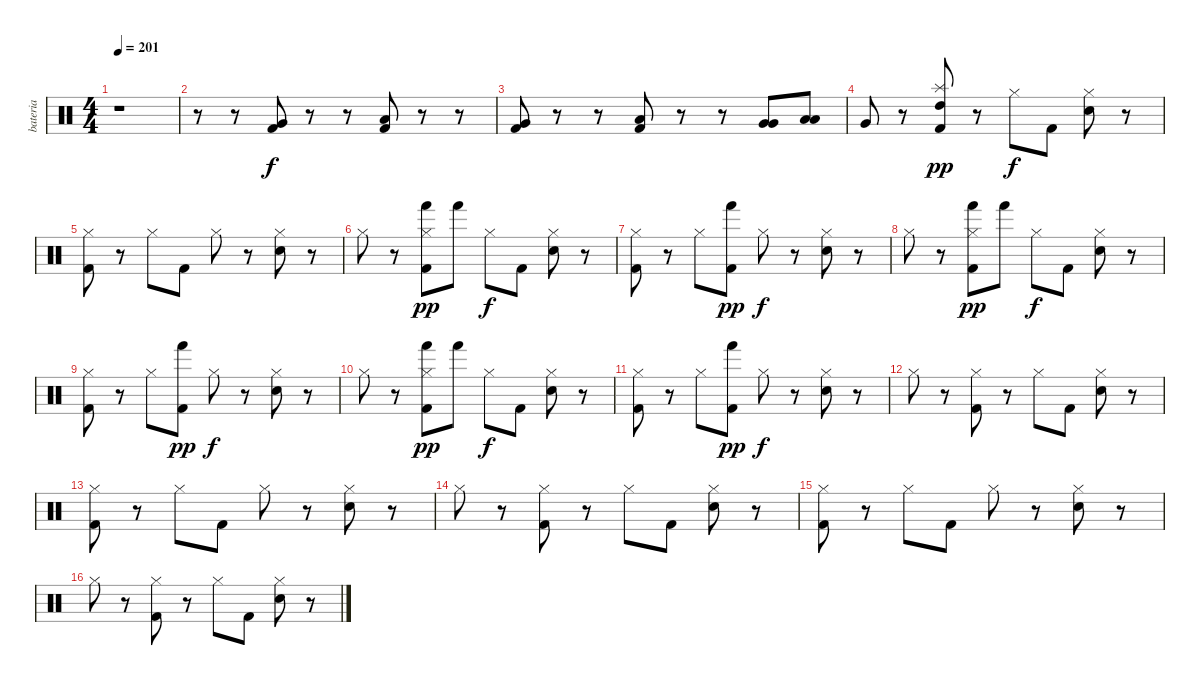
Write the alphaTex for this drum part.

\track ("bateria" "bateria") {solo instrument percussion}
\staff {score}
\articulation defaults
\ts (4 4)
\tempo 201
\clef neutral
\ks c
r.1{dy f} |
r.8 r.8 ("Very Low Tom (hit)" "Kick (hit) 2").8 r.8 r.8 ("Low Floor Tom (hit)" "Kick (hit) 2").8 r.8 r.8 |
("Very Low Tom (hit)" "Kick (hit) 2").8 r.8 r.8 ("Low Tom (hit)" "Kick (hit) 2").8 r.8 r.8 ("Very Low Tom (hit)" "Very Low Tom (hit)").8 ("Low Tom (hit)" "Low Tom (hit)").8 |
"Very Low Tom (hit)".8 r.8 ("Splash (hit)" "Kick (hit) 2" "High Tom (hit)").8{dy pp} r.8 "Hi-Hat (closed)".8{dy f} "Kick (hit) 2".8 ("Hi-Hat (closed)" "Electric Snare (hit)").8 r.8 |
("Hi-Hat (closed)" "Kick (hit) 2").8 r.8 "Hi-Hat (closed)".8 "Kick (hit) 2".8 "Hi-Hat (closed)".8 r.8 ("Hi-Hat (closed)" "Electric Snare (hit)").8 r.8 |
"Hi-Hat (closed)".8 r.8 ("Hi-Hat (closed)" "Kick (hit) 2" "Hand (hit)").8{dy pp} "Hand (hit)".8 "Hi-Hat (closed)".8{dy f} "Kick (hit) 2".8 ("Hi-Hat (closed)" "Electric Snare (hit)").8 r.8 |
("Hi-Hat (closed)" "Kick (hit) 2").8 r.8 "Hi-Hat (closed)".8 ("Kick (hit) 2" "Hand (hit)").8{dy pp} "Hi-Hat (closed)".8{dy f} r.8 ("Hi-Hat (closed)" "Electric Snare (hit)").8 r.8 |
"Hi-Hat (closed)".8 r.8 ("Hi-Hat (closed)" "Kick (hit) 2" "Hand (hit)").8{dy pp} "Hand (hit)".8 "Hi-Hat (closed)".8{dy f} "Kick (hit) 2".8 ("Hi-Hat (closed)" "Electric Snare (hit)").8 r.8 |
("Hi-Hat (closed)" "Kick (hit) 2").8 r.8 "Hi-Hat (closed)".8 ("Kick (hit) 2" "Hand (hit)").8{dy pp} "Hi-Hat (closed)".8{dy f} r.8 ("Hi-Hat (closed)" "Electric Snare (hit)").8 r.8 |
"Hi-Hat (closed)".8 r.8 ("Hi-Hat (closed)" "Kick (hit) 2" "Hand (hit)").8{dy pp} "Hand (hit)".8 "Hi-Hat (closed)".8{dy f} "Kick (hit) 2".8 ("Hi-Hat (closed)" "Electric Snare (hit)").8 r.8 |
("Hi-Hat (closed)" "Kick (hit) 2").8 r.8 "Hi-Hat (closed)".8 ("Kick (hit) 2" "Hand (hit)").8{dy pp} "Hi-Hat (closed)".8{dy f} r.8 ("Hi-Hat (closed)" "Electric Snare (hit)").8 r.8 |
"Hi-Hat (closed)".8 r.8 ("Hi-Hat (closed)" "Kick (hit) 2").8 r.8 "Hi-Hat (closed)".8 "Kick (hit) 2".8 ("Hi-Hat (closed)" "Electric Snare (hit)").8 r.8 |
("Hi-Hat (closed)" "Kick (hit) 2").8 r.8 "Hi-Hat (closed)".8 "Kick (hit) 2".8 "Hi-Hat (closed)".8 r.8 ("Hi-Hat (closed)" "Electric Snare (hit)").8 r.8 |
"Hi-Hat (closed)".8 r.8 ("Hi-Hat (closed)" "Kick (hit) 2").8 r.8 "Hi-Hat (closed)".8 "Kick (hit) 2".8 ("Hi-Hat (closed)" "Electric Snare (hit)").8 r.8 |
("Hi-Hat (closed)" "Kick (hit) 2").8 r.8 "Hi-Hat (closed)".8 "Kick (hit) 2".8 "Hi-Hat (closed)".8 r.8 ("Hi-Hat (closed)" "Electric Snare (hit)").8 r.8 |
"Hi-Hat (closed)".8 r.8 ("Hi-Hat (closed)" "Kick (hit) 2").8 r.8 "Hi-Hat (closed)".8 "Kick (hit) 2".8 ("Hi-Hat (closed)" "Electric Snare (hit)").8 r.8
